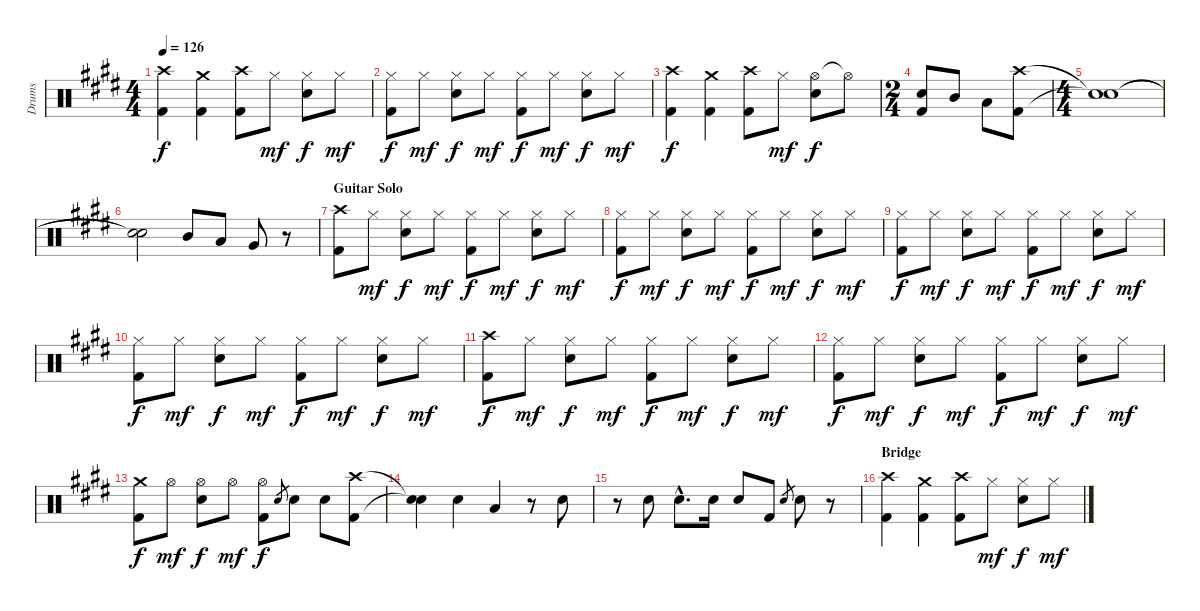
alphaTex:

\track ("Drums" "Drums") {instrument percussion}
\staff {score}
\articulation defaults
\ts (4 4)
\tempo 126
\clef neutral
\ks e
("Crash high (hit)" "Kick (hit) 2").4{dy f} ("Crash medium (hit)" "Kick (hit) 2").4 ("Crash high (hit)" "Kick (hit) 2").8 "Hi-Hat (closed)".8{dy mf} ("Hi-Hat (closed)" "Snare (hit) 2").8{dy f} "Hi-Hat (closed)".8{dy mf} |
("Hi-Hat (closed)" "Kick (hit) 2").8{dy f} "Hi-Hat (closed)".8{dy mf} ("Hi-Hat (closed)" "Snare (hit) 2").8{dy f} "Hi-Hat (closed)".8{dy mf} ("Hi-Hat (closed)" "Kick (hit) 2").8{dy f} "Hi-Hat (closed)".8{dy mf} ("Hi-Hat (closed)" "Snare (hit) 2").8{dy f} "Hi-Hat (closed)".8{dy mf} |
("Crash high (hit)" "Kick (hit) 2").4{dy f} ("Crash medium (hit)" "Kick (hit) 2").4 ("Crash high (hit)" "Kick (hit) 2").8 "Hi-Hat (closed)".8{dy mf} ("Hi-Hat (open)" "Snare (hit) 2").8{dy f} "Hi-Hat (open)"{t}.8 |
\ts (2 4)
("Snare (hit) 2" "Kick (hit) 2").8 "Mid Tom (hit)".8 "Low Tom (hit)".8 ("Crash high (hit)" "Kick (hit) 2").8 |
\ts (4 4)
("Snare (hit)"{t} "Snare (hit)"{t}).1 |
("Snare (hit)"{t} "Snare (hit)"{t}).2 "Mid Tom (hit)".8 "Low Tom (hit)".8 "Very Low Tom (hit)".8 r.8 |
\section ("" "Guitar Solo")
("Crash high (hit)" "Kick (hit) 2").8 "Hi-Hat (closed)".8{dy mf} ("Hi-Hat (closed)" "Snare (hit) 2").8{dy f} "Hi-Hat (closed)".8{dy mf} ("Hi-Hat (closed)" "Kick (hit) 2").8{dy f} "Hi-Hat (closed)".8{dy mf} ("Hi-Hat (closed)" "Snare (hit) 2").8{dy f} "Hi-Hat (closed)".8{dy mf} |
("Hi-Hat (closed)" "Kick (hit) 2").8{dy f} "Hi-Hat (closed)".8{dy mf} ("Hi-Hat (closed)" "Snare (hit) 2").8{dy f} "Hi-Hat (closed)".8{dy mf} ("Hi-Hat (closed)" "Kick (hit) 2").8{dy f} "Hi-Hat (closed)".8{dy mf} ("Hi-Hat (closed)" "Snare (hit) 2").8{dy f} "Hi-Hat (closed)".8{dy mf} |
("Hi-Hat (closed)" "Kick (hit) 2").8{dy f} "Hi-Hat (closed)".8{dy mf} ("Hi-Hat (closed)" "Snare (hit) 2").8{dy f} "Hi-Hat (closed)".8{dy mf} ("Hi-Hat (closed)" "Kick (hit) 2").8{dy f} "Hi-Hat (closed)".8{dy mf} ("Hi-Hat (closed)" "Snare (hit) 2").8{dy f} "Hi-Hat (closed)".8{dy mf} |
("Hi-Hat (closed)" "Kick (hit) 2").8{dy f} "Hi-Hat (closed)".8{dy mf} ("Hi-Hat (closed)" "Snare (hit) 2").8{dy f} "Hi-Hat (closed)".8{dy mf} ("Hi-Hat (closed)" "Kick (hit) 2").8{dy f} "Hi-Hat (closed)".8{dy mf} ("Hi-Hat (closed)" "Snare (hit) 2").8{dy f} "Hi-Hat (closed)".8{dy mf} |
("Crash high (hit)" "Kick (hit) 2").8{dy f} "Hi-Hat (closed)".8{dy mf} ("Hi-Hat (closed)" "Snare (hit) 2").8{dy f} "Hi-Hat (closed)".8{dy mf} ("Hi-Hat (closed)" "Kick (hit) 2").8{dy f} "Hi-Hat (closed)".8{dy mf} ("Hi-Hat (closed)" "Snare (hit) 2").8{dy f} "Hi-Hat (closed)".8{dy mf} |
("Hi-Hat (closed)" "Kick (hit) 2").8{dy f} "Hi-Hat (closed)".8{dy mf} ("Hi-Hat (closed)" "Snare (hit) 2").8{dy f} "Hi-Hat (closed)".8{dy mf} ("Hi-Hat (closed)" "Kick (hit) 2").8{dy f} "Hi-Hat (closed)".8{dy mf} ("Hi-Hat (closed)" "Snare (hit) 2").8{dy f} "Hi-Hat (closed)".8{dy mf} |
("Crash medium (hit)" "Kick (hit) 2").8{dy f} "Hi-Hat (open)".8{dy mf} ("Hi-Hat (open)" "Snare (hit) 2").8{dy f} "Hi-Hat (open)".8{dy mf} ("Hi-Hat (open)" "Kick (hit) 2").8{dy f} "Snare (hit) 2".8{gr} "Snare (hit) 2".8 "Snare (hit) 2".8 ("Crash high (hit)" "Kick (hit) 2").8 |
("Snare (hit)"{t} "Snare (hit)"{t}).4 "Snare (hit) 2".4 "Low Tom (hit)".4 r.8 "Snare (hit) 2".8 |
r.8 "Snare (hit) 2".8 "Snare (hit) 2"{hac}.8{d} "Snare (hit) 2".16 "Snare (hit) 2".8 "Kick (hit) 2".8 "Snare (hit) 2".8{gr} "Snare (hit) 2".8 r.8 |
\section ("" "Bridge")
("Crash high (hit)" "Kick (hit) 2").4 ("Crash medium (hit)" "Kick (hit) 2").4 ("Crash high (hit)" "Kick (hit) 2").8 "Hi-Hat (closed)".8{dy mf} ("Hi-Hat (closed)" "Snare (hit) 2").8{dy f} "Hi-Hat (closed)".8{dy mf}
